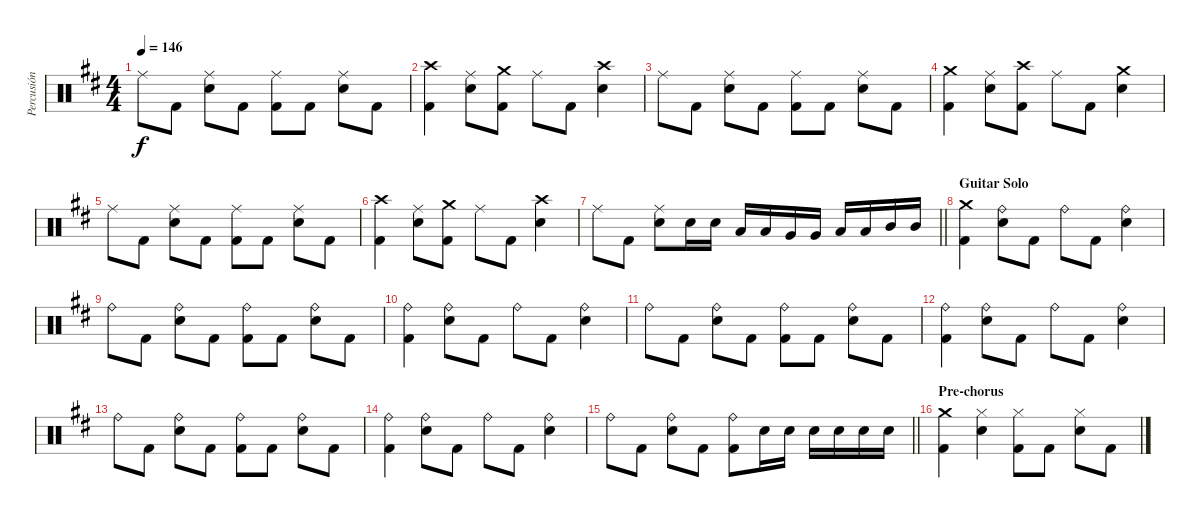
\track ("Percusión" "Percusión") {instrument percussion}
\staff {score}
\articulation defaults
\ts (4 4)
\tempo 146
\clef neutral
\ks d "Ride (middle)".8{dy f} "Kick (hit) 2".8
("Ride (middle)" "Snare (hit) 2").8 "Kick (hit) 2".8 ("Ride (middle)" "Kick (hit) 2").8 "Kick (hit) 2".8 ("Ride (middle)" "Snare (hit) 2").8 "Kick (hit) 2".8 |
("Crash high (hit)" "Kick (hit) 2").4 ("Ride (middle)" "Snare (hit) 2").8 ("Crash medium (hit)" "Kick (hit) 2").8 "Ride (middle)".8 "Kick (hit) 2".8 ("Crash high (hit)" "Snare (hit) 2").4 |
"Ride (middle)".8 "Kick (hit) 2".8 ("Ride (middle)" "Snare (hit) 2").8 "Kick (hit) 2".8 ("Ride (middle)" "Kick (hit) 2").8 "Kick (hit) 2".8 ("Ride (middle)" "Snare (hit) 2").8 "Kick (hit) 2".8 |
("Crash medium (hit)" "Kick (hit) 2").4 ("Ride (middle)" "Snare (hit) 2").8 ("Crash high (hit)" "Kick (hit) 2").8 "Ride (middle)".8 "Kick (hit) 2".8 ("Crash medium (hit)" "Snare (hit) 2").4 |
"Ride (middle)".8 "Kick (hit) 2".8 ("Ride (middle)" "Snare (hit) 2").8 "Kick (hit) 2".8 ("Ride (middle)" "Kick (hit) 2").8 "Kick (hit) 2".8 ("Ride (middle)" "Snare (hit) 2").8 "Kick (hit) 2".8 |
("Crash high (hit)" "Kick (hit) 2").4 ("Ride (middle)" "Snare (hit) 2").8 ("Crash medium (hit)" "Kick (hit) 2").8 "Ride (middle)".8 "Kick (hit) 2".8 ("Crash high (hit)" "Snare (hit) 2").4 |
\barLineRight lightlight "Ride (middle)".8 "Kick (hit) 2".8
("Ride (middle)" "Snare (hit) 2").8 "Snare (hit) 2".16 "Snare (hit) 2".16 "Low Floor Tom (hit)".16 "Low Floor Tom (hit)".16 "Very Low Tom (hit)".16 "Very Low Tom (hit)".16 "Low Tom (hit)".16 "Low Tom (hit)".16 "Mid Tom (hit)".16 "Mid Tom (hit)".16 |
\section ("" "Guitar Solo")
("Crash medium (hit)" "Kick (hit) 2").4 ("Ride (bell)" "Snare (hit) 2").8 "Kick (hit) 2".8 "Ride (bell)".8 "Kick (hit) 2".8 ("Ride (bell)" "Snare (hit) 2").4 |
"Ride (bell)".8 "Kick (hit) 2".8 ("Ride (bell)" "Snare (hit) 2").8 "Kick (hit) 2".8 ("Ride (bell)" "Kick (hit) 2").8 "Kick (hit) 2".8 ("Ride (bell)" "Snare (hit) 2").8 "Kick (hit) 2".8 |
("Ride (bell)" "Kick (hit) 2").4 ("Ride (bell)" "Snare (hit) 2").8 "Kick (hit) 2".8 "Ride (bell)".8 "Kick (hit) 2".8 ("Ride (bell)" "Snare (hit) 2").4 |
"Ride (bell)".8 "Kick (hit) 2".8 ("Ride (bell)" "Snare (hit) 2").8 "Kick (hit) 2".8 ("Ride (bell)" "Kick (hit) 2").8 "Kick (hit) 2".8 ("Ride (bell)" "Snare (hit) 2").8 "Kick (hit) 2".8 |
("Ride (bell)" "Kick (hit) 2").4 ("Ride (bell)" "Snare (hit) 2").8 "Kick (hit) 2".8 "Ride (bell)".8 "Kick (hit) 2".8 ("Ride (bell)" "Snare (hit) 2").4 |
"Ride (bell)".8 "Kick (hit) 2".8 ("Ride (bell)" "Snare (hit) 2").8 "Kick (hit) 2".8 ("Ride (bell)" "Kick (hit) 2").8 "Kick (hit) 2".8 ("Ride (bell)" "Snare (hit) 2").8 "Kick (hit) 2".8 |
("Ride (bell)" "Kick (hit) 2").4 ("Ride (bell)" "Snare (hit) 2").8 "Kick (hit) 2".8 "Ride (bell)".8 "Kick (hit) 2".8 ("Ride (bell)" "Snare (hit) 2").4 |
\barLineRight lightlight "Ride (bell)".8 "Kick (hit) 2".8
("Ride (bell)" "Snare (hit) 2").8 "Kick (hit) 2".8 ("Ride (bell)" "Kick (hit) 2").8 "Snare (hit) 2".16 "Snare (hit) 2".16 "Snare (hit) 2".16 "Snare (hit) 2".16 "Snare (hit) 2".16 "Snare (hit) 2".16 |
\section ("" "Pre-chorus")
("Crash medium (hit)" "Kick (hit) 2").4 ("Hi-Hat (closed)" "Snare (hit) 2").4 ("Hi-Hat (closed)" "Kick (hit) 2").8 "Kick (hit) 2".8 ("Hi-Hat (closed)" "Snare (hit) 2").8 "Kick (hit) 2".8
